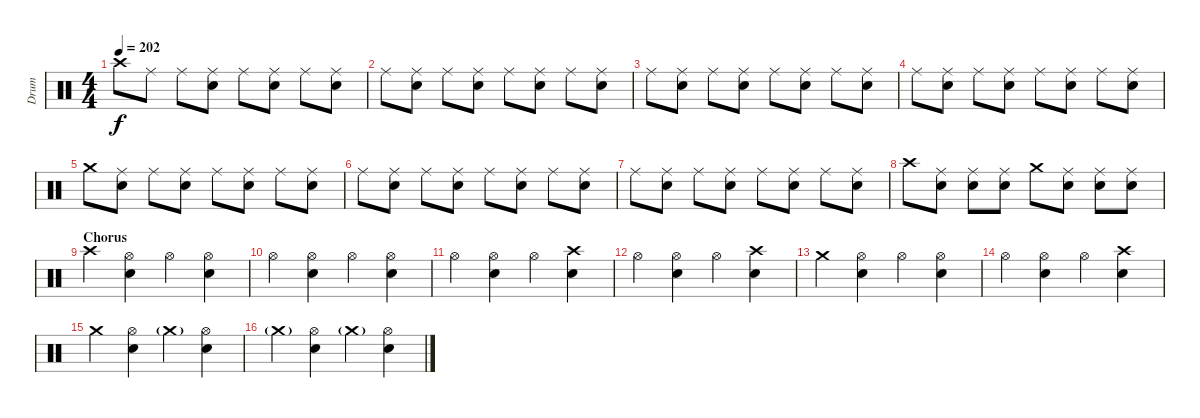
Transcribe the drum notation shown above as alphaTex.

\track ("Drum" "Drum") {instrument percussion}
\staff {score}
\articulation defaults
\ts (4 4)
\tempo 202
\clef neutral
\ks c "Crash high (hit)".8{dy f} "Ride (middle)".8 "Ride (middle)".8
("Ride (middle)" "Electric Snare (hit)").8 "Ride (middle)".8 ("Ride (middle)" "Electric Snare (hit)").8 "Ride (middle)".8 ("Ride (middle)" "Electric Snare (hit)").8 |
"Ride (middle)".8 ("Ride (middle)" "Electric Snare (hit)").8 "Ride (middle)".8 ("Ride (middle)" "Electric Snare (hit)").8 "Ride (middle)".8 ("Ride (middle)" "Electric Snare (hit)").8 "Ride (middle)".8 ("Ride (middle)" "Electric Snare (hit)").8 |
"Ride (middle)".8 ("Ride (middle)" "Electric Snare (hit)").8 "Ride (middle)".8 ("Ride (middle)" "Electric Snare (hit)").8 "Ride (middle)".8 ("Ride (middle)" "Electric Snare (hit)").8 "Ride (middle)".8 ("Ride (middle)" "Electric Snare (hit)").8 |
"Ride (middle)".8 ("Ride (middle)" "Electric Snare (hit)").8 "Ride (middle)".8 ("Ride (middle)" "Electric Snare (hit)").8 "Ride (middle)".8 ("Ride (middle)" "Electric Snare (hit)").8 "Ride (middle)".8 ("Ride (middle)" "Electric Snare (hit)").8 |
"Crash medium (hit)".8 ("Ride (middle)" "Electric Snare (hit)").8 "Ride (middle)".8 ("Ride (middle)" "Electric Snare (hit)").8 "Ride (middle)".8 ("Ride (middle)" "Electric Snare (hit)").8 "Ride (middle)".8 ("Ride (middle)" "Electric Snare (hit)").8 |
"Ride (middle)".8 ("Ride (middle)" "Electric Snare (hit)").8 "Ride (middle)".8 ("Ride (middle)" "Electric Snare (hit)").8 "Ride (middle)".8 ("Ride (middle)" "Electric Snare (hit)").8 "Ride (middle)".8 ("Ride (middle)" "Electric Snare (hit)").8 |
"Ride (middle)".8 ("Ride (middle)" "Electric Snare (hit)").8 "Ride (middle)".8 ("Ride (middle)" "Electric Snare (hit)").8 "Ride (middle)".8 ("Ride (middle)" "Electric Snare (hit)").8 "Ride (middle)".8 ("Ride (middle)" "Electric Snare (hit)").8 |
"Crash high (hit)".8 ("Ride (middle)" "Electric Snare (hit)").8 ("Ride (middle)" "Electric Snare (hit)").8 ("Ride (middle)" "Electric Snare (hit)").8 "Crash medium (hit)".8 ("Ride (middle)" "Electric Snare (hit)").8 ("Ride (middle)" "Electric Snare (hit)").8 ("Ride (middle)" "Electric Snare (hit)").8 |
\section ("" "Chorus")
"Crash high (hit)".4 ("Hi-Hat (open)" "Electric Snare (hit)").4 "Hi-Hat (open)".4 ("Hi-Hat (open)" "Electric Snare (hit)").4 |
"Hi-Hat (open)".4 ("Hi-Hat (open)" "Electric Snare (hit)").4 "Hi-Hat (open)".4 ("Hi-Hat (open)" "Electric Snare (hit)").4 |
"Hi-Hat (open)".4 ("Hi-Hat (open)" "Electric Snare (hit)").4 "Hi-Hat (open)".4 ("Crash high (hit)" "Electric Snare (hit)").4 |
"Hi-Hat (open)".4 ("Hi-Hat (open)" "Electric Snare (hit)").4 "Hi-Hat (open)".4 ("Crash high (hit)" "Electric Snare (hit)").4 |
"Crash medium (hit)".4 ("Hi-Hat (open)" "Electric Snare (hit)").4 "Hi-Hat (open)".4 ("Hi-Hat (open)" "Electric Snare (hit)").4 |
"Hi-Hat (open)".4 ("Hi-Hat (open)" "Electric Snare (hit)").4 "Hi-Hat (open)".4 ("Crash high (hit)" "Electric Snare (hit)").4 |
"Crash medium (hit)".4 ("Hi-Hat (open)" "Electric Snare (hit)").4 "Crash medium (hit)"{g}.4 ("Hi-Hat (open)" "Electric Snare (hit)").4 |
"Crash medium (hit)"{g}.4 ("Hi-Hat (open)" "Electric Snare (hit)").4 "Crash medium (hit)"{g}.4 ("Hi-Hat (open)" "Electric Snare (hit)").4
